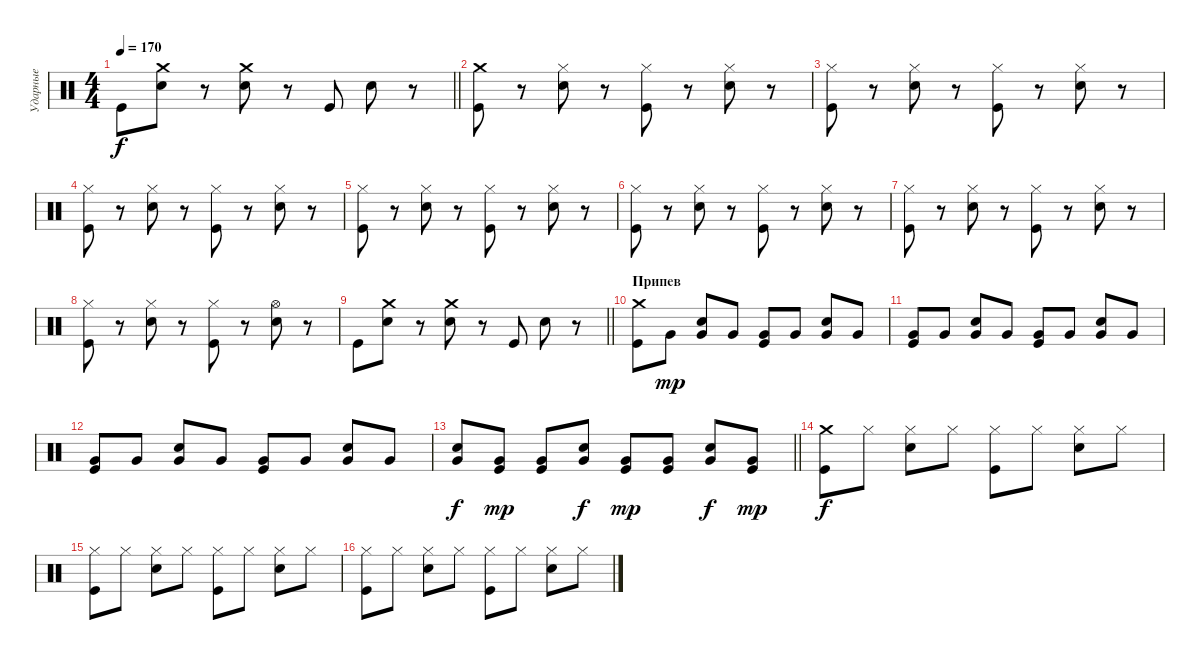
\track ("Ударные" "Ударные") {instrument percussion}
\staff {score}
\articulation defaults
\ts (4 4)
\tempo 170
\clef neutral
\barLineRight lightlight
\ks c "Kick (hit)".8{dy f}
("Crash medium (hit)" "Electric Snare (hit)").8 r.8 ("Crash medium (hit)" "Electric Snare (hit)").8 r.8 "Kick (hit)".8 "Electric Snare (hit)".8 r.8 |
\section ("" " ")
("Crash medium (hit)" "Kick (hit)").8 r.8 ("Hi-Hat (closed)" "Electric Snare (hit)").8 r.8 ("Hi-Hat (closed)" "Kick (hit)").8 r.8 ("Hi-Hat (closed)" "Electric Snare (hit)").8 r.8 |
("Hi-Hat (closed)" "Kick (hit)").8 r.8 ("Hi-Hat (closed)" "Electric Snare (hit)").8 r.8 ("Hi-Hat (closed)" "Kick (hit)").8 r.8 ("Hi-Hat (closed)" "Electric Snare (hit)").8 r.8 |
("Hi-Hat (closed)" "Kick (hit)").8 r.8 ("Hi-Hat (closed)" "Electric Snare (hit)").8 r.8 ("Hi-Hat (closed)" "Kick (hit)").8 r.8 ("Hi-Hat (closed)" "Electric Snare (hit)").8 r.8 |
("Hi-Hat (closed)" "Kick (hit)").8 r.8 ("Hi-Hat (closed)" "Electric Snare (hit)").8 r.8 ("Hi-Hat (closed)" "Kick (hit)").8 r.8 ("Hi-Hat (closed)" "Electric Snare (hit)").8 r.8 |
("Hi-Hat (closed)" "Kick (hit)").8 r.8 ("Hi-Hat (closed)" "Electric Snare (hit)").8 r.8 ("Hi-Hat (closed)" "Kick (hit)").8 r.8 ("Hi-Hat (closed)" "Electric Snare (hit)").8 r.8 |
("Hi-Hat (closed)" "Kick (hit)").8 r.8 ("Hi-Hat (closed)" "Electric Snare (hit)").8 r.8 ("Hi-Hat (closed)" "Kick (hit)").8 r.8 ("Hi-Hat (closed)" "Electric Snare (hit)").8 r.8 |
("Hi-Hat (closed)" "Kick (hit)").8 r.8 ("Hi-Hat (closed)" "Electric Snare (hit)").8 r.8 ("Hi-Hat (closed)" "Kick (hit)").8 r.8 ("Hi-Hat (open)" "Electric Snare (hit)").8 r.8 |
\barLineRight lightlight "Kick (hit)".8
("Crash medium (hit)" "Electric Snare (hit)").8 r.8 ("Crash medium (hit)" "Electric Snare (hit)").8 r.8 "Kick (hit)".8 "Electric Snare (hit)".8 r.8 |
\section ("" "Припев")
("Crash medium (hit)" "Kick (hit)").8 "Very Low Tom (hit)".8{dy mp} ("Very Low Tom (hit)" "Electric Snare (hit)").8 "Very Low Tom (hit)".8 ("Very Low Tom (hit)" "Kick (hit)").8 "Very Low Tom (hit)".8 ("Very Low Tom (hit)" "Electric Snare (hit)").8 "Very Low Tom (hit)".8 |
("Very Low Tom (hit)" "Kick (hit)").8 "Very Low Tom (hit)".8 ("Very Low Tom (hit)" "Electric Snare (hit)").8 "Very Low Tom (hit)".8 ("Very Low Tom (hit)" "Kick (hit)").8 "Very Low Tom (hit)".8 ("Very Low Tom (hit)" "Electric Snare (hit)").8 "Very Low Tom (hit)".8 |
("Very Low Tom (hit)" "Kick (hit)").8 "Very Low Tom (hit)".8 ("Very Low Tom (hit)" "Electric Snare (hit)").8 "Very Low Tom (hit)".8 ("Very Low Tom (hit)" "Kick (hit)").8 "Very Low Tom (hit)".8 ("Very Low Tom (hit)" "Electric Snare (hit)").8 "Very Low Tom (hit)".8 |
\barLineRight lightlight
("Electric Snare (hit)" "Very Low Tom (hit)").8{dy f} ("Kick (hit)" "Very Low Tom (hit)").8{dy mp} ("Kick (hit)" "Very Low Tom (hit)").8 ("Electric Snare (hit)" "Very Low Tom (hit)").8{dy f} ("Kick (hit)" "Very Low Tom (hit)").8{dy mp} ("Kick (hit)" "Very Low Tom (hit)").8 ("Electric Snare (hit)" "Very Low Tom (hit)").8{dy f} ("Kick (hit)" "Very Low Tom (hit)").8{dy mp} |
\section ("" " ")
("Crash medium (hit)" "Kick (hit)").8{dy f} "Hi-Hat (closed)".8 ("Hi-Hat (closed)" "Electric Snare (hit)").8 "Hi-Hat (closed)".8 ("Hi-Hat (closed)" "Kick (hit)").8 "Hi-Hat (closed)".8 ("Hi-Hat (closed)" "Electric Snare (hit)").8 "Hi-Hat (closed)".8 |
("Hi-Hat (closed)" "Kick (hit)").8 "Hi-Hat (closed)".8 ("Hi-Hat (closed)" "Electric Snare (hit)").8 "Hi-Hat (closed)".8 ("Hi-Hat (closed)" "Kick (hit)").8 "Hi-Hat (closed)".8 ("Hi-Hat (closed)" "Electric Snare (hit)").8 "Hi-Hat (closed)".8 |
("Hi-Hat (closed)" "Kick (hit)").8 "Hi-Hat (closed)".8 ("Hi-Hat (closed)" "Electric Snare (hit)").8 "Hi-Hat (closed)".8 ("Hi-Hat (closed)" "Kick (hit)").8 "Hi-Hat (closed)".8 ("Hi-Hat (closed)" "Electric Snare (hit)").8 "Hi-Hat (closed)".8
